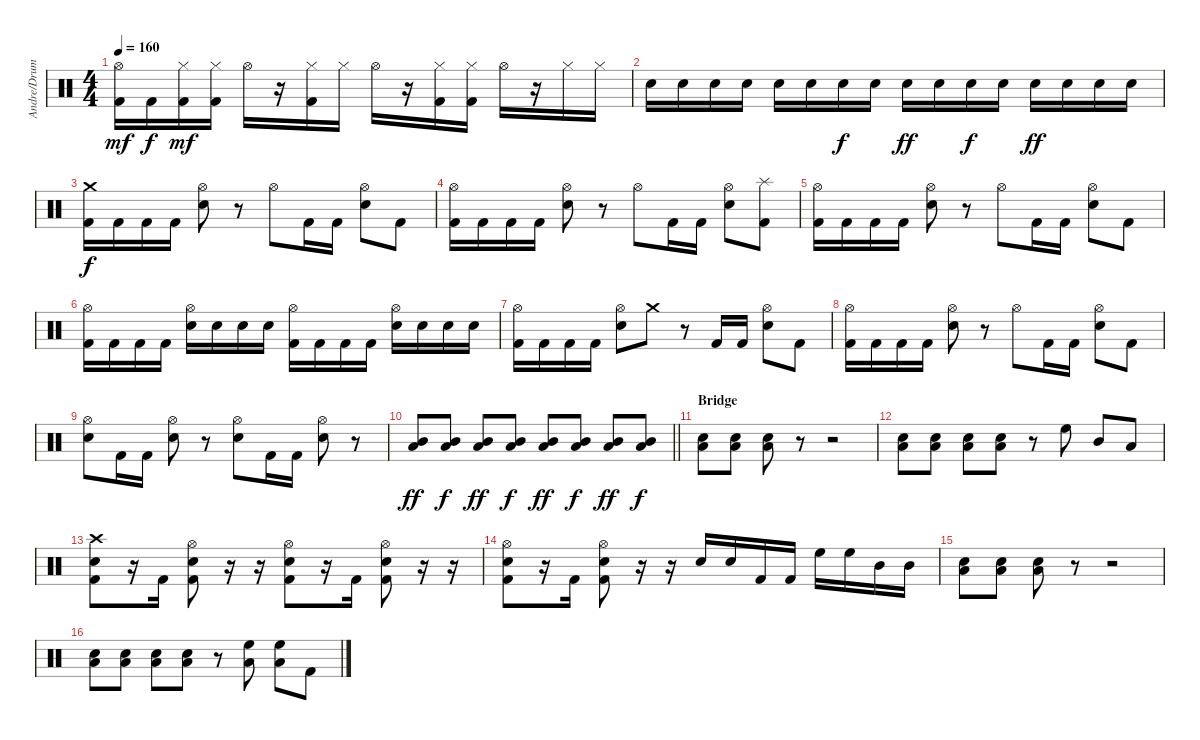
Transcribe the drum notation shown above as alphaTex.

\track ("Andre/Drums" "Andre/Drum") {instrument percussion}
\staff {score}
\articulation defaults
\ts (4 4)
\tempo 160
\clef neutral
\ks c
("Hi-Hat (open)" "Kick (hit) 2").16{dy mf} "Kick (hit) 2".16{dy f} ("Hi-Hat (closed)" "Kick (hit) 2").16{dy mf} ("Hi-Hat (closed)" "Kick (hit) 2").16 "Hi-Hat (open)".16 r.16 ("Hi-Hat (closed)" "Kick (hit) 2").16 "Hi-Hat (closed)".16 "Hi-Hat (open)".16 r.16 ("Hi-Hat (closed)" "Kick (hit) 2").16 ("Hi-Hat (closed)" "Kick (hit) 2").16 "Hi-Hat (open)".16 r.16 "Hi-Hat (closed)".16 "Hi-Hat (closed)".16 |
"Snare (hit) 2".16 "Snare (hit) 2".16 "Snare (hit) 2".16 "Snare (hit) 2".16 "Snare (hit) 2".16 "Snare (hit) 2".16 "Snare (hit) 2".16{dy f} "Snare (hit) 2".16 "Snare (hit) 2".16{dy ff} "Snare (hit) 2".16 "Snare (hit) 2".16{dy f} "Snare (hit) 2".16 "Snare (hit) 2".16{dy ff} "Snare (hit) 2".16 "Snare (hit) 2".16 "Snare (hit) 2".16 |
("Crash medium (hit)" "Kick (hit) 2").16{dy f} "Kick (hit) 2".16 "Kick (hit) 2".16 "Kick (hit) 2".16 ("Hi-Hat (open)" "Snare (hit) 2").8 r.8 "Hi-Hat (open)".8 "Kick (hit) 2".16 "Kick (hit) 2".16 ("Hi-Hat (open)" "Snare (hit) 2").8 "Kick (hit) 2".8 |
("Hi-Hat (open)" "Kick (hit) 2").16 "Kick (hit) 2".16 "Kick (hit) 2".16 "Kick (hit) 2".16 ("Hi-Hat (open)" "Snare (hit) 2").8 r.8 "Hi-Hat (open)".8 "Kick (hit) 2".16 "Kick (hit) 2".16 ("Hi-Hat (open)" "Snare (hit) 2").8 ("Splash (hit)" "Kick (hit) 2").8 |
("Hi-Hat (open)" "Kick (hit) 2").16 "Kick (hit) 2".16 "Kick (hit) 2".16 "Kick (hit) 2".16 ("Hi-Hat (open)" "Snare (hit) 2").8 r.8 "Hi-Hat (open)".8 "Kick (hit) 2".16 "Kick (hit) 2".16 ("Hi-Hat (open)" "Snare (hit) 2").8 "Kick (hit) 2".8 |
("Hi-Hat (open)" "Kick (hit) 2").16 "Kick (hit) 2".16 "Kick (hit) 2".16 "Kick (hit) 2".16 ("Hi-Hat (open)" "Snare (hit) 2").16 "Snare (hit) 2".16 "Snare (hit) 2".16 "Snare (hit) 2".16 ("Hi-Hat (open)" "Kick (hit) 2").16 "Kick (hit) 2".16 "Kick (hit) 2".16 "Kick (hit) 2".16 ("Hi-Hat (open)" "Snare (hit) 2").16 "Snare (hit) 2".16 "Snare (hit) 2".16 "Snare (hit) 2".16 |
("Hi-Hat (open)" "Kick (hit) 2").16 "Kick (hit) 2".16 "Kick (hit) 2".16 "Kick (hit) 2".16 ("Hi-Hat (open)" "Snare (hit) 2").8 "Crash medium (hit)".8 r.8 "Kick (hit) 2".16 "Kick (hit) 2".16 ("Hi-Hat (open)" "Snare (hit) 2").8 "Kick (hit) 2".8 |
("Hi-Hat (open)" "Kick (hit) 2").16 "Kick (hit) 2".16 "Kick (hit) 2".16 "Kick (hit) 2".16 ("Hi-Hat (open)" "Snare (hit) 2").8 r.8 "Hi-Hat (open)".8 "Kick (hit) 2".16 "Kick (hit) 2".16 ("Hi-Hat (open)" "Snare (hit) 2").8 "Kick (hit) 2".8 |
("Hi-Hat (open)" "Snare (hit) 2").8 "Kick (hit) 2".16 "Kick (hit) 2".16 ("Hi-Hat (open)" "Snare (hit) 2").8 r.8 ("Hi-Hat (open)" "Snare (hit) 2").8 "Kick (hit) 2".16 "Kick (hit) 2".16 ("Hi-Hat (open)" "Snare (hit) 2").8 r.8 |
\barLineRight lightlight
("Mid Tom (hit)" "Low Floor Tom (hit)").8{dy ff} ("Mid Tom (hit)" "Low Floor Tom (hit)").8{dy f} ("Mid Tom (hit)" "Low Floor Tom (hit)").8{dy ff} ("Mid Tom (hit)" "Low Floor Tom (hit)").8{dy f} ("Mid Tom (hit)" "Low Floor Tom (hit)").8{dy ff} ("Mid Tom (hit)" "Low Floor Tom (hit)").8{dy f} ("Mid Tom (hit)" "Low Floor Tom (hit)").8{dy ff} ("Mid Tom (hit)" "Low Floor Tom (hit)").8{dy f} |
\section ("" "Bridge")
("Snare (hit) 2" "Low Tom (hit)").8 ("Snare (hit) 2" "Low Tom (hit)").8 ("Snare (hit) 2" "Low Tom (hit)").8 r.8 r.2 |
("Snare (hit) 2" "Low Tom (hit)").8 ("Snare (hit) 2" "Low Tom (hit)").8 ("Snare (hit) 2" "Low Tom (hit)").8 ("Snare (hit) 2" "Low Tom (hit)").8 r.8 "High Floor Tom (hit)".8 "Mid Tom (hit)".8 "Low Tom (hit)".8 |
("Crash high (hit)" "Snare (hit) 2" "Kick (hit) 2").8 r.16 "Kick (hit) 2".16 ("Hi-Hat (open)" "Snare (hit) 2" "Kick (hit) 2").8 r.16 r.16 ("Hi-Hat (open)" "Snare (hit) 2" "Kick (hit) 2").8 r.16 "Kick (hit) 2".16 ("Hi-Hat (open)" "Snare (hit) 2" "Kick (hit) 2").8 r.16 r.16 |
("Hi-Hat (open)" "Snare (hit) 2" "Kick (hit) 2").8 r.16 "Kick (hit) 2".16 ("Hi-Hat (open)" "Snare (hit) 2" "Kick (hit) 2").8 r.16 r.16 "Snare (hit) 2".16 "Snare (hit) 2".16 "Kick (hit) 2".16 "Kick (hit) 2".16 "High Floor Tom (hit)".16 "High Floor Tom (hit)".16 "Mid Tom (hit)".16 "Mid Tom (hit)".16 |
("Snare (hit) 2" "Low Tom (hit)").8 ("Snare (hit) 2" "Low Tom (hit)").8 ("Snare (hit) 2" "Low Tom (hit)").8 r.8 r.2 |
("Snare (hit) 2" "Low Tom (hit)").8 ("Snare (hit) 2" "Low Tom (hit)").8 ("Snare (hit) 2" "Low Tom (hit)").8 ("Snare (hit) 2" "Low Tom (hit)").8 r.8 ("High Floor Tom (hit)" "Low Tom (hit)").8 ("High Floor Tom (hit)" "Low Tom (hit)").8 "Kick (hit) 2".8
